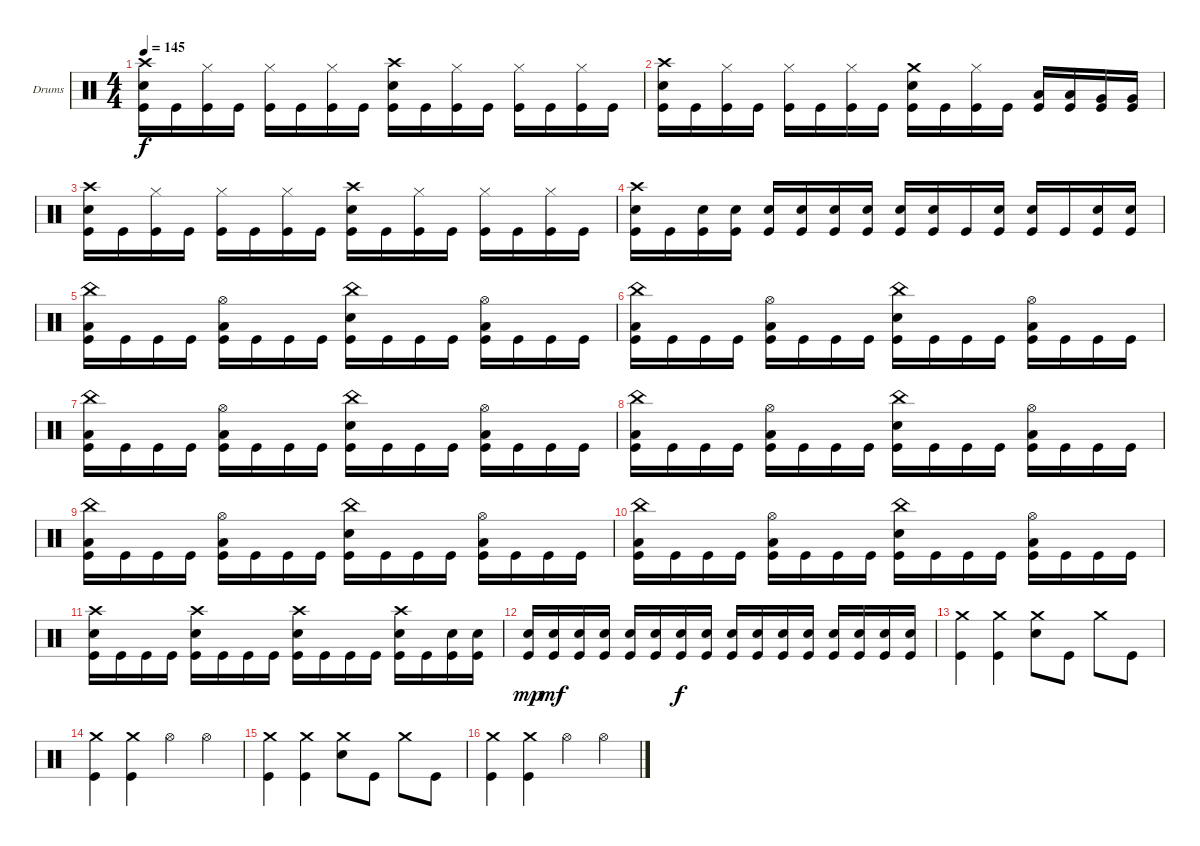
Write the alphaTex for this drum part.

\bracketExtendMode groupsimilarinstruments
\firstSystemTrackNameOrientation horizontal
\otherSystemsTrackNameOrientation horizontal
\track ("Drumkit" "Drums") {instrument percussion}
\staff {score}
\articulation defaults
\ts (4 4)
\tempo 145
\clef neutral
\ks c
("Crash high (hit)" "Snare (hit) 2" "Kick (hit)").16{dy f} "Kick (hit)".16 ("Hi-Hat (closed)" "Kick (hit)").16 "Kick (hit)".16 ("Hi-Hat (closed)" "Kick (hit)").16 "Kick (hit)".16 ("Hi-Hat (closed)" "Kick (hit)").16 "Kick (hit)".16 ("Crash high (hit)" "Snare (hit) 2" "Kick (hit)").16 "Kick (hit)".16 ("Hi-Hat (closed)" "Kick (hit)").16 "Kick (hit)".16 ("Hi-Hat (closed)" "Kick (hit)").16 "Kick (hit)".16 ("Hi-Hat (closed)" "Kick (hit)").16 "Kick (hit)".16 |
("Crash high (hit)" "Snare (hit) 2" "Kick (hit)").16 "Kick (hit)".16 ("Hi-Hat (closed)" "Kick (hit)").16 "Kick (hit)".16 ("Hi-Hat (closed)" "Kick (hit)").16 "Kick (hit)".16 ("Hi-Hat (closed)" "Kick (hit)").16 "Kick (hit)".16 ("Crash medium (hit)" "Snare (hit) 2" "Kick (hit)").16 "Kick (hit)".16 ("Hi-Hat (closed)" "Kick (hit)").16 "Kick (hit)".16 ("Low Tom (hit)" "Kick (hit)").16 ("Low Tom (hit)" "Kick (hit)").16 ("Very Low Tom (hit)" "Kick (hit)").16 ("Very Low Tom (hit)" "Kick (hit)").16 |
("Crash high (hit)" "Snare (hit) 2" "Kick (hit)").16 "Kick (hit)".16 ("Hi-Hat (closed)" "Kick (hit)").16 "Kick (hit)".16 ("Hi-Hat (closed)" "Kick (hit)").16 "Kick (hit)".16 ("Hi-Hat (closed)" "Kick (hit)").16 "Kick (hit)".16 ("Crash high (hit)" "Snare (hit) 2" "Kick (hit)").16 "Kick (hit)".16 ("Hi-Hat (closed)" "Kick (hit)").16 "Kick (hit)".16 ("Hi-Hat (closed)" "Kick (hit)").16 "Kick (hit)".16 ("Hi-Hat (closed)" "Kick (hit)").16 "Kick (hit)".16 |
("Crash high (hit)" "Snare (hit) 2" "Kick (hit)").16 "Kick (hit)".16 ("Snare (hit) 2" "Kick (hit)").16 ("Snare (hit) 2" "Kick (hit)").16 ("Snare (hit) 2" "Kick (hit)").16 ("Snare (hit) 2" "Kick (hit)").16 ("Snare (hit) 2" "Kick (hit)").16 ("Snare (hit) 2" "Kick (hit)").16 ("Snare (hit) 2" "Kick (hit)").16 ("Snare (hit) 2" "Kick (hit)").16 "Kick (hit)".16 ("Snare (hit) 2" "Kick (hit)").16 ("Snare (hit) 2" "Kick (hit)").16 "Kick (hit)".16 ("Snare (hit) 2" "Kick (hit)").16 ("Snare (hit) 2" "Kick (hit)").16 |
("China (hit)" "Low Tom (hit)" "Kick (hit)").16 "Kick (hit)".16 "Kick (hit)".16 "Kick (hit)".16 ("Hi-Hat (open)" "Low Tom (hit)" "Kick (hit)").16 "Kick (hit)".16 "Kick (hit)".16 "Kick (hit)".16 ("China (hit)" "Snare (hit) 2" "Kick (hit)").16 "Kick (hit)".16 "Kick (hit)".16 "Kick (hit)".16 ("Hi-Hat (open)" "Low Tom (hit)" "Kick (hit)").16 "Kick (hit)".16 "Kick (hit)".16 "Kick (hit)".16 |
("China (hit)" "Low Tom (hit)" "Kick (hit)").16 "Kick (hit)".16 "Kick (hit)".16 "Kick (hit)".16 ("Hi-Hat (open)" "Low Tom (hit)" "Kick (hit)").16 "Kick (hit)".16 "Kick (hit)".16 "Kick (hit)".16 ("China (hit)" "Snare (hit) 2" "Kick (hit)").16 "Kick (hit)".16 "Kick (hit)".16 "Kick (hit)".16 ("Hi-Hat (open)" "Low Tom (hit)" "Kick (hit)").16 "Kick (hit)".16 "Kick (hit)".16 "Kick (hit)".16 |
("China (hit)" "Low Tom (hit)" "Kick (hit)").16 "Kick (hit)".16 "Kick (hit)".16 "Kick (hit)".16 ("Hi-Hat (open)" "Low Tom (hit)" "Kick (hit)").16 "Kick (hit)".16 "Kick (hit)".16 "Kick (hit)".16 ("China (hit)" "Snare (hit) 2" "Kick (hit)").16 "Kick (hit)".16 "Kick (hit)".16 "Kick (hit)".16 ("Hi-Hat (open)" "Low Tom (hit)" "Kick (hit)").16 "Kick (hit)".16 "Kick (hit)".16 "Kick (hit)".16 |
("China (hit)" "Low Tom (hit)" "Kick (hit)").16 "Kick (hit)".16 "Kick (hit)".16 "Kick (hit)".16 ("Hi-Hat (open)" "Low Tom (hit)" "Kick (hit)").16 "Kick (hit)".16 "Kick (hit)".16 "Kick (hit)".16 ("China (hit)" "Snare (hit) 2" "Kick (hit)").16 "Kick (hit)".16 "Kick (hit)".16 "Kick (hit)".16 ("Hi-Hat (open)" "Low Tom (hit)" "Kick (hit)").16 "Kick (hit)".16 "Kick (hit)".16 "Kick (hit)".16 |
("China (hit)" "Low Tom (hit)" "Kick (hit)").16 "Kick (hit)".16 "Kick (hit)".16 "Kick (hit)".16 ("Hi-Hat (open)" "Low Tom (hit)" "Kick (hit)").16 "Kick (hit)".16 "Kick (hit)".16 "Kick (hit)".16 ("China (hit)" "Snare (hit) 2" "Kick (hit)").16 "Kick (hit)".16 "Kick (hit)".16 "Kick (hit)".16 ("Hi-Hat (open)" "Low Tom (hit)" "Kick (hit)").16 "Kick (hit)".16 "Kick (hit)".16 "Kick (hit)".16 |
("China (hit)" "Low Tom (hit)" "Kick (hit)").16 "Kick (hit)".16 "Kick (hit)".16 "Kick (hit)".16 ("Hi-Hat (open)" "Low Tom (hit)" "Kick (hit)").16 "Kick (hit)".16 "Kick (hit)".16 "Kick (hit)".16 ("China (hit)" "Snare (hit) 2" "Kick (hit)").16 "Kick (hit)".16 "Kick (hit)".16 "Kick (hit)".16 ("Hi-Hat (open)" "Low Tom (hit)" "Kick (hit)").16 "Kick (hit)".16 "Kick (hit)".16 "Kick (hit)".16 |
("Crash high (hit)" "Snare (hit) 2" "Kick (hit)").16 "Kick (hit)".16 "Kick (hit)".16 "Kick (hit)".16 ("Crash high (hit)" "Snare (hit) 2" "Kick (hit)").16 "Kick (hit)".16 "Kick (hit)".16 "Kick (hit)".16 ("Crash high (hit)" "Snare (hit) 2" "Kick (hit)").16 "Kick (hit)".16 "Kick (hit)".16 "Kick (hit)".16 ("Crash high (hit)" "Snare (hit) 2" "Kick (hit)").16 "Kick (hit)".16 ("Snare (hit) 2" "Kick (hit)").16 ("Snare (hit) 2" "Kick (hit)").16 |
("Snare (hit) 2" "Kick (hit)").16{dy mp} ("Snare (hit) 2" "Kick (hit)").16{dy mf} ("Snare (hit) 2" "Kick (hit)").16 ("Snare (hit) 2" "Kick (hit)").16 ("Snare (hit) 2" "Kick (hit)").16 ("Snare (hit) 2" "Kick (hit)").16 ("Snare (hit) 2" "Kick (hit)").16{dy f} ("Snare (hit) 2" "Kick (hit)").16 ("Snare (hit) 2" "Kick (hit)").16 ("Snare (hit) 2" "Kick (hit)").16 ("Snare (hit) 2" "Kick (hit)").16 ("Snare (hit) 2" "Kick (hit)").16 ("Snare (hit) 2" "Kick (hit)").16 ("Snare (hit) 2" "Kick (hit)").16 ("Snare (hit) 2" "Kick (hit)").16 ("Snare (hit) 2" "Kick (hit)").16 |
("Crash medium (hit)" "Kick (hit)").4 ("Crash medium (hit)" "Kick (hit)").4 ("Crash medium (hit)" "Snare (hit) 2").8 "Kick (hit)".8 "Crash medium (hit)".8 "Kick (hit)".8 |
("Crash medium (hit)" "Kick (hit)").4 ("Crash medium (hit)" "Kick (hit)").4 "Hi-Hat (open)".4 "Hi-Hat (open)".4 |
("Crash medium (hit)" "Kick (hit)").4 ("Crash medium (hit)" "Kick (hit)").4 ("Crash medium (hit)" "Snare (hit) 2").8 "Kick (hit)".8 "Crash medium (hit)".8 "Kick (hit)".8 |
("Crash medium (hit)" "Kick (hit)").4 ("Crash medium (hit)" "Kick (hit)").4 "Hi-Hat (open)".4 "Hi-Hat (open)".4
